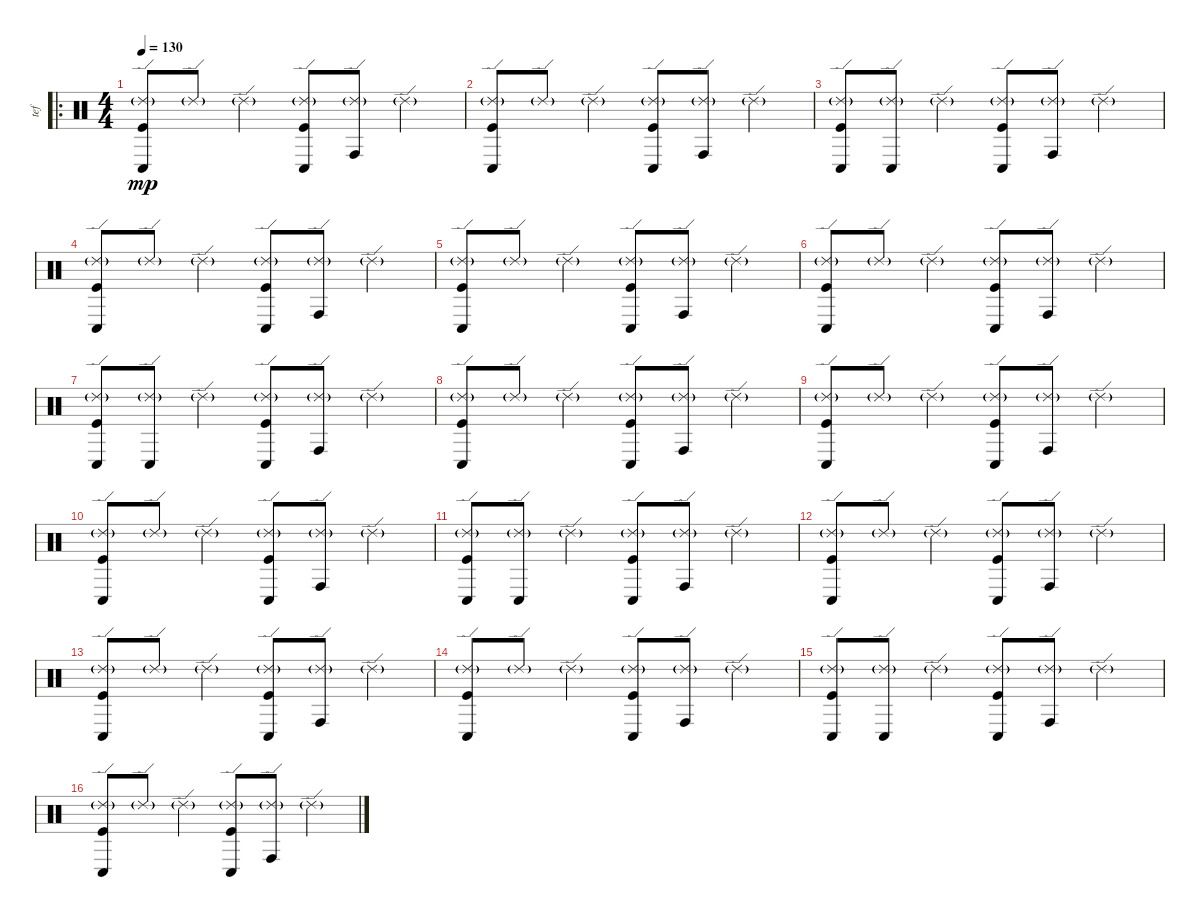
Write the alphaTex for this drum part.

\track ("tef" "tef") {instrument percussion}
\staff {score}
\articulation defaults
\ro
\ts (4 4)
\tempo 130
\clef neutral
\ks c
("Ride (edge) 2"{g} "Kick (hit)" "Conga low (hit)").8{dy mp} "Ride (edge) 2"{g}.8 "Ride (edge) 2"{g}.4 ("Ride (edge) 2"{g} "Kick (hit)" "Conga low (hit)").8 ("Ride (edge) 2"{g} "Conga high (hit)").8 "Ride (edge) 2"{g}.4 |
("Ride (edge) 2"{g} "Kick (hit)" "Conga low (hit)").8 "Ride (edge) 2"{g}.8 "Ride (edge) 2"{g}.4 ("Ride (edge) 2"{g} "Kick (hit)" "Conga low (hit)").8 ("Ride (edge) 2"{g} "Conga high (hit)").8 "Ride (edge) 2"{g}.4 |
("Ride (edge) 2"{g} "Kick (hit)" "Conga low (hit)").8 ("Ride (edge) 2"{g} "Conga low (hit)").8 "Ride (edge) 2"{g}.4 ("Ride (edge) 2"{g} "Kick (hit)" "Conga low (hit)").8 ("Ride (edge) 2"{g} "Conga high (hit)").8 "Ride (edge) 2"{g}.4 |
("Ride (edge) 2"{g} "Kick (hit)" "Conga low (hit)").8 "Ride (edge) 2"{g}.8 "Ride (edge) 2"{g}.4 ("Ride (edge) 2"{g} "Kick (hit)" "Conga low (hit)").8 ("Ride (edge) 2"{g} "Conga high (hit)").8 "Ride (edge) 2"{g}.4 |
("Ride (edge) 2"{g} "Kick (hit)" "Conga low (hit)").8 "Ride (edge) 2"{g}.8 "Ride (edge) 2"{g}.4 ("Ride (edge) 2"{g} "Kick (hit)" "Conga low (hit)").8 ("Ride (edge) 2"{g} "Conga high (hit)").8 "Ride (edge) 2"{g}.4 |
("Ride (edge) 2"{g} "Kick (hit)" "Conga low (hit)").8 "Ride (edge) 2"{g}.8 "Ride (edge) 2"{g}.4 ("Ride (edge) 2"{g} "Kick (hit)" "Conga low (hit)").8 ("Ride (edge) 2"{g} "Conga high (hit)").8 "Ride (edge) 2"{g}.4 |
("Ride (edge) 2"{g} "Kick (hit)" "Conga low (hit)").8 ("Ride (edge) 2"{g} "Conga low (hit)").8 "Ride (edge) 2"{g}.4 ("Ride (edge) 2"{g} "Kick (hit)" "Conga low (hit)").8 ("Ride (edge) 2"{g} "Conga high (hit)").8 "Ride (edge) 2"{g}.4 |
("Ride (edge) 2"{g} "Kick (hit)" "Conga low (hit)").8 "Ride (edge) 2"{g}.8 "Ride (edge) 2"{g}.4 ("Ride (edge) 2"{g} "Kick (hit)" "Conga low (hit)").8 ("Ride (edge) 2"{g} "Conga high (hit)").8 "Ride (edge) 2"{g}.4 |
("Ride (edge) 2"{g} "Kick (hit)" "Conga low (hit)").8 "Ride (edge) 2"{g}.8 "Ride (edge) 2"{g}.4 ("Ride (edge) 2"{g} "Kick (hit)" "Conga low (hit)").8 ("Ride (edge) 2"{g} "Conga high (hit)").8 "Ride (edge) 2"{g}.4 |
("Ride (edge) 2"{g} "Kick (hit)" "Conga low (hit)").8 "Ride (edge) 2"{g}.8 "Ride (edge) 2"{g}.4 ("Ride (edge) 2"{g} "Kick (hit)" "Conga low (hit)").8 ("Ride (edge) 2"{g} "Conga high (hit)").8 "Ride (edge) 2"{g}.4 |
("Ride (edge) 2"{g} "Kick (hit)" "Conga low (hit)").8 ("Ride (edge) 2"{g} "Conga low (hit)").8 "Ride (edge) 2"{g}.4 ("Ride (edge) 2"{g} "Kick (hit)" "Conga low (hit)").8 ("Ride (edge) 2"{g} "Conga high (hit)").8 "Ride (edge) 2"{g}.4 |
("Ride (edge) 2"{g} "Kick (hit)" "Conga low (hit)").8 "Ride (edge) 2"{g}.8 "Ride (edge) 2"{g}.4 ("Ride (edge) 2"{g} "Kick (hit)" "Conga low (hit)").8 ("Ride (edge) 2"{g} "Conga high (hit)").8 "Ride (edge) 2"{g}.4 |
("Ride (edge) 2"{g} "Kick (hit)" "Conga low (hit)").8 "Ride (edge) 2"{g}.8 "Ride (edge) 2"{g}.4 ("Ride (edge) 2"{g} "Kick (hit)" "Conga low (hit)").8 ("Ride (edge) 2"{g} "Conga high (hit)").8 "Ride (edge) 2"{g}.4 |
("Ride (edge) 2"{g} "Kick (hit)" "Conga low (hit)").8 "Ride (edge) 2"{g}.8 "Ride (edge) 2"{g}.4 ("Ride (edge) 2"{g} "Kick (hit)" "Conga low (hit)").8 ("Ride (edge) 2"{g} "Conga high (hit)").8 "Ride (edge) 2"{g}.4 |
("Ride (edge) 2"{g} "Kick (hit)" "Conga low (hit)").8 ("Ride (edge) 2"{g} "Conga low (hit)").8 "Ride (edge) 2"{g}.4 ("Ride (edge) 2"{g} "Kick (hit)" "Conga low (hit)").8 ("Ride (edge) 2"{g} "Conga high (hit)").8 "Ride (edge) 2"{g}.4 |
("Ride (edge) 2"{g} "Kick (hit)" "Conga low (hit)").8 "Ride (edge) 2"{g}.8 "Ride (edge) 2"{g}.4 ("Ride (edge) 2"{g} "Kick (hit)" "Conga low (hit)").8 ("Ride (edge) 2"{g} "Conga high (hit)").8 "Ride (edge) 2"{g}.4
